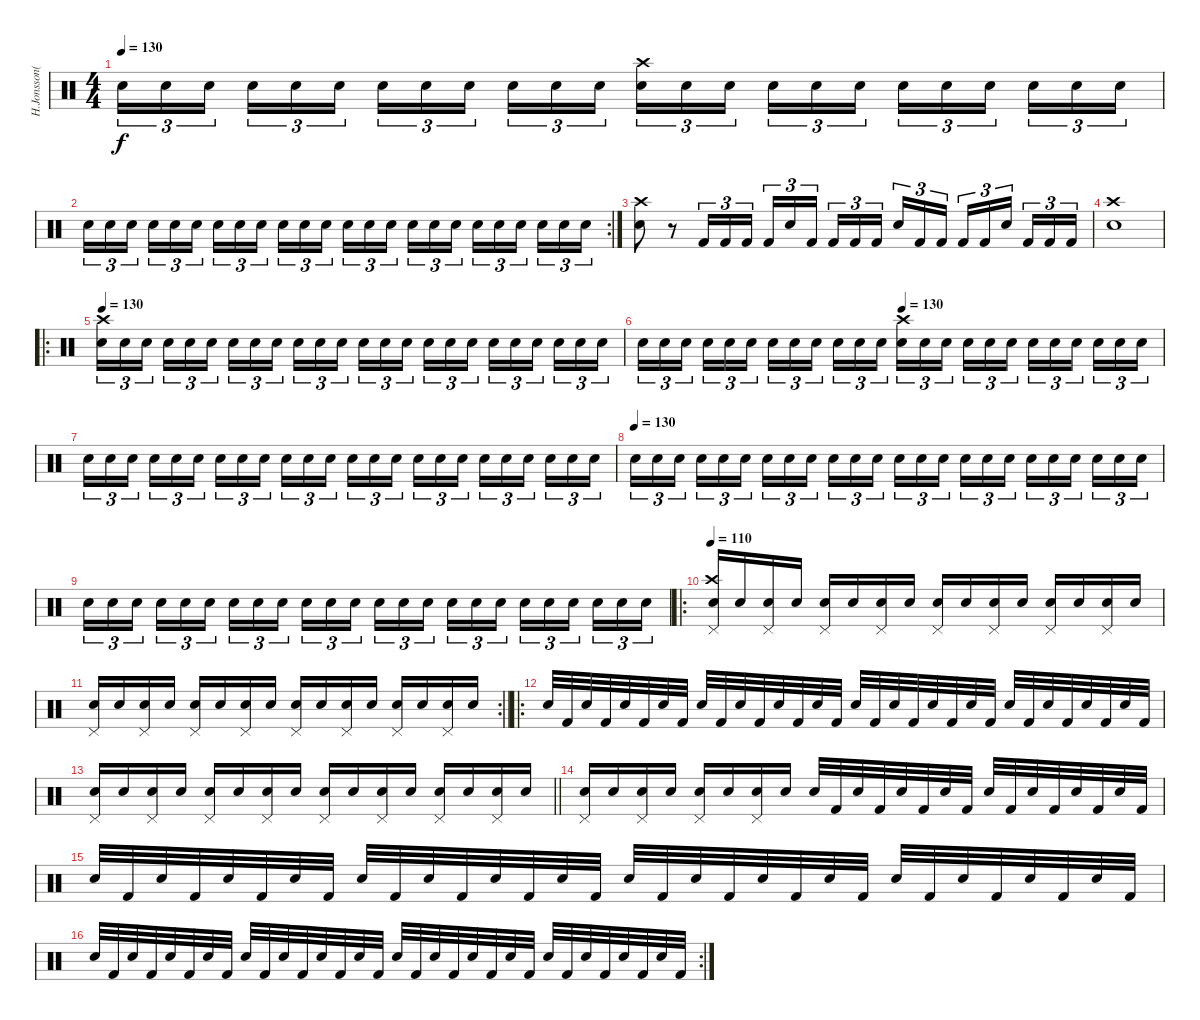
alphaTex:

\track ("H.Jonsson(Drums)" "H.Jonsson(") {instrument percussion}
\staff {score}
\articulation defaults
\ts (4 4)
\tempo 130
\clef neutral
\ks c "Electric Snare (hit)".16{tu (3 2) dy f} "Snare (hit) 2".16{tu (3 2)} "Electric Snare (hit)".16{tu (3 2) beam splitsecondary} "Snare (hit) 2".16{tu (3 2)} "Electric Snare (hit)".16{tu (3 2)} "Snare (hit) 2".16{tu (3 2)} "Electric Snare (hit)".16{tu (3 2)} "Snare (hit) 2".16{tu (3 2)} "Electric Snare (hit)".16{tu (3 2) beam splitsecondary} "Snare (hit) 2".16{tu (3 2)} "Electric Snare (hit)".16{tu (3 2)} "Snare (hit) 2".16{tu (3 2)}
("Crash high (hit)" "Electric Snare (hit)").16{tu (3 2)} "Snare (hit) 2".16{tu (3 2)} "Electric Snare (hit)".16{tu (3 2) beam splitsecondary} "Snare (hit) 2".16{tu (3 2)} "Electric Snare (hit)".16{tu (3 2)} "Snare (hit) 2".16{tu (3 2)} "Electric Snare (hit)".16{tu (3 2)} "Snare (hit) 2".16{tu (3 2)} "Electric Snare (hit)".16{tu (3 2) beam splitsecondary} "Snare (hit) 2".16{tu (3 2)} "Electric Snare (hit)".16{tu (3 2)} "Snare (hit) 2".16{tu (3 2)} |
\rc 2 "Electric Snare (hit)".16{tu (3 2)} "Snare (hit) 2".16{tu (3 2)} "Electric Snare (hit)".16{tu (3 2) beam splitsecondary} "Snare (hit) 2".16{tu (3 2)} "Electric Snare (hit)".16{tu (3 2)} "Snare (hit) 2".16{tu (3 2)} "Electric Snare (hit)".16{tu (3 2)} "Snare (hit) 2".16{tu (3 2)} "Electric Snare (hit)".16{tu (3 2) beam splitsecondary} "Snare (hit) 2".16{tu (3 2)} "Electric Snare (hit)".16{tu (3 2)} "Snare (hit) 2".16{tu (3 2)} "Electric Snare (hit)".16{tu (3 2)} "Snare (hit) 2".16{tu (3 2)} "Electric Snare (hit)".16{tu (3 2) beam splitsecondary} "Snare (hit) 2".16{tu (3 2)} "Electric Snare (hit)".16{tu (3 2)} "Snare (hit) 2".16{tu (3 2)} "Electric Snare (hit)".16{tu (3 2)} "Snare (hit) 2".16{tu (3 2)} "Electric Snare (hit)".16{tu (3 2) beam splitsecondary} "Snare (hit) 2".16{tu (3 2)} "Electric Snare (hit)".16{tu (3 2)} "Snare (hit) 2".16{tu (3 2)}
|
("Crash high (hit)" "Snare (hit) 2").8 r.8 "Kick (hit) 2".16{tu (3 2)} "Kick (hit) 2".16{tu (3 2)} "Kick (hit) 2".16{tu (3 2) beam splitsecondary} "Kick (hit) 2".16{tu (3 2)} "Snare (hit) 2".16{tu (3 2)} "Kick (hit) 2".16{tu (3 2)} "Kick (hit) 2".16{tu (3 2)} "Kick (hit) 2".16{tu (3 2)} "Kick (hit) 2".16{tu (3 2) beam splitsecondary} "Snare (hit) 2".16{tu (3 2)} "Kick (hit) 2".16{tu (3 2)} "Kick (hit) 2".16{tu (3 2)} "Kick (hit) 2".16{tu (3 2)} "Kick (hit) 2".16{tu (3 2)} "Snare (hit) 2".16{tu (3 2) beam splitsecondary} "Kick (hit) 2".16{tu (3 2)} "Kick (hit) 2".16{tu (3 2)} "Kick (hit) 2".16{tu (3 2)} |
("Snare (hit) 2" "Crash high (hit)").1 |
\ro
\tempo 130
("Crash high (hit)" "Electric Snare (hit)").16{tu (3 2)} "Snare (hit) 2".16{tu (3 2)} "Electric Snare (hit)".16{tu (3 2) beam splitsecondary} "Snare (hit) 2".16{tu (3 2)} "Electric Snare (hit)".16{tu (3 2)} "Snare (hit) 2".16{tu (3 2)} "Electric Snare (hit)".16{tu (3 2)} "Snare (hit) 2".16{tu (3 2)} "Electric Snare (hit)".16{tu (3 2) beam splitsecondary} "Snare (hit) 2".16{tu (3 2)} "Electric Snare (hit)".16{tu (3 2)} "Snare (hit) 2".16{tu (3 2)} "Electric Snare (hit)".16{tu (3 2)} "Snare (hit) 2".16{tu (3 2)} "Electric Snare (hit)".16{tu (3 2) beam splitsecondary} "Snare (hit) 2".16{tu (3 2)} "Electric Snare (hit)".16{tu (3 2)} "Snare (hit) 2".16{tu (3 2)} "Electric Snare (hit)".16{tu (3 2)} "Snare (hit) 2".16{tu (3 2)} "Electric Snare (hit)".16{tu (3 2) beam splitsecondary} "Snare (hit) 2".16{tu (3 2)} "Electric Snare (hit)".16{tu (3 2)} "Snare (hit) 2".16{tu (3 2)} |
\tempo (130 0.5)
"Electric Snare (hit)".16{tu (3 2)} "Snare (hit) 2".16{tu (3 2)} "Electric Snare (hit)".16{tu (3 2) beam splitsecondary} "Snare (hit) 2".16{tu (3 2)} "Electric Snare (hit)".16{tu (3 2)} "Snare (hit) 2".16{tu (3 2)} "Electric Snare (hit)".16{tu (3 2)} "Snare (hit) 2".16{tu (3 2)} "Electric Snare (hit)".16{tu (3 2) beam splitsecondary} "Snare (hit) 2".16{tu (3 2)} "Electric Snare (hit)".16{tu (3 2)} "Snare (hit) 2".16{tu (3 2)} ("Crash high (hit)" "Electric Snare (hit)").16{tu (3 2)} "Snare (hit) 2".16{tu (3 2)} "Electric Snare (hit)".16{tu (3 2) beam splitsecondary} "Snare (hit) 2".16{tu (3 2)} "Electric Snare (hit)".16{tu (3 2)} "Snare (hit) 2".16{tu (3 2)} "Electric Snare (hit)".16{tu (3 2)} "Snare (hit) 2".16{tu (3 2)} "Electric Snare (hit)".16{tu (3 2) beam splitsecondary} "Snare (hit) 2".16{tu (3 2)} "Electric Snare (hit)".16{tu (3 2)} "Snare (hit) 2".16{tu (3 2)} |
"Electric Snare (hit)".16{tu (3 2)} "Snare (hit) 2".16{tu (3 2)} "Electric Snare (hit)".16{tu (3 2) beam splitsecondary} "Snare (hit) 2".16{tu (3 2)} "Electric Snare (hit)".16{tu (3 2)} "Snare (hit) 2".16{tu (3 2)} "Electric Snare (hit)".16{tu (3 2)} "Snare (hit) 2".16{tu (3 2)} "Electric Snare (hit)".16{tu (3 2) beam splitsecondary} "Snare (hit) 2".16{tu (3 2)} "Electric Snare (hit)".16{tu (3 2)} "Snare (hit) 2".16{tu (3 2)} "Electric Snare (hit)".16{tu (3 2)} "Snare (hit) 2".16{tu (3 2)} "Electric Snare (hit)".16{tu (3 2) beam splitsecondary} "Snare (hit) 2".16{tu (3 2)} "Electric Snare (hit)".16{tu (3 2)} "Snare (hit) 2".16{tu (3 2)} "Electric Snare (hit)".16{tu (3 2)} "Snare (hit) 2".16{tu (3 2)} "Electric Snare (hit)".16{tu (3 2) beam splitsecondary} "Snare (hit) 2".16{tu (3 2)} "Electric Snare (hit)".16{tu (3 2)} "Snare (hit) 2".16{tu (3 2)} |
\tempo (130)
"Electric Snare (hit)".16{tu (3 2)} "Snare (hit) 2".16{tu (3 2)} "Electric Snare (hit)".16{tu (3 2) beam splitsecondary} "Snare (hit) 2".16{tu (3 2)} "Electric Snare (hit)".16{tu (3 2)} "Snare (hit) 2".16{tu (3 2)} "Electric Snare (hit)".16{tu (3 2)} "Snare (hit) 2".16{tu (3 2)} "Electric Snare (hit)".16{tu (3 2) beam splitsecondary} "Snare (hit) 2".16{tu (3 2)} "Electric Snare (hit)".16{tu (3 2)} "Snare (hit) 2".16{tu (3 2)} "Electric Snare (hit)".16{tu (3 2)} "Snare (hit) 2".16{tu (3 2)} "Electric Snare (hit)".16{tu (3 2) beam splitsecondary} "Snare (hit) 2".16{tu (3 2)} "Electric Snare (hit)".16{tu (3 2)} "Snare (hit) 2".16{tu (3 2)} "Electric Snare (hit)".16{tu (3 2)} "Snare (hit) 2".16{tu (3 2)} "Electric Snare (hit)".16{tu (3 2) beam splitsecondary} "Snare (hit) 2".16{tu (3 2)} "Electric Snare (hit)".16{tu (3 2)} "Snare (hit) 2".16{tu (3 2)} |
"Electric Snare (hit)".16{tu (3 2)} "Snare (hit) 2".16{tu (3 2)} "Electric Snare (hit)".16{tu (3 2) beam splitsecondary} "Snare (hit) 2".16{tu (3 2)} "Electric Snare (hit)".16{tu (3 2)} "Snare (hit) 2".16{tu (3 2)} "Electric Snare (hit)".16{tu (3 2)} "Snare (hit) 2".16{tu (3 2)} "Electric Snare (hit)".16{tu (3 2) beam splitsecondary} "Snare (hit) 2".16{tu (3 2)} "Electric Snare (hit)".16{tu (3 2)} "Snare (hit) 2".16{tu (3 2)} "Electric Snare (hit)".16{tu (3 2)} "Snare (hit) 2".16{tu (3 2)} "Electric Snare (hit)".16{tu (3 2) beam splitsecondary} "Snare (hit) 2".16{tu (3 2)} "Electric Snare (hit)".16{tu (3 2)} "Snare (hit) 2".16{tu (3 2)} "Electric Snare (hit)".16{tu (3 2)} "Snare (hit) 2".16{tu (3 2)} "Electric Snare (hit)".16{tu (3 2) beam splitsecondary} "Snare (hit) 2".16{tu (3 2)} "Electric Snare (hit)".16{tu (3 2)} "Snare (hit) 2".16{tu (3 2)} |
\ro
\tempo 120
\tempo 110
("Crash high (hit)" "Pedal Hi-Hat (hit)" "Snare (hit) 2").16 "Electric Snare (hit)".16 ("Pedal Hi-Hat (hit)" "Snare (hit) 2").16 "Electric Snare (hit)".16 ("Pedal Hi-Hat (hit)" "Snare (hit) 2").16 "Electric Snare (hit)".16 ("Pedal Hi-Hat (hit)" "Snare (hit) 2").16 "Electric Snare (hit)".16 ("Pedal Hi-Hat (hit)" "Snare (hit) 2").16 "Electric Snare (hit)".16 ("Pedal Hi-Hat (hit)" "Snare (hit) 2").16 "Electric Snare (hit)".16 ("Pedal Hi-Hat (hit)" "Snare (hit) 2").16 "Electric Snare (hit)".16 ("Pedal Hi-Hat (hit)" "Snare (hit) 2").16 "Electric Snare (hit)".16 |
\rc 2
\barLineRight lightlight
("Pedal Hi-Hat (hit)" "Snare (hit) 2").16 "Electric Snare (hit)".16 ("Pedal Hi-Hat (hit)" "Snare (hit) 2").16 "Electric Snare (hit)".16 ("Pedal Hi-Hat (hit)" "Snare (hit) 2").16 "Electric Snare (hit)".16 ("Pedal Hi-Hat (hit)" "Snare (hit) 2").16 "Electric Snare (hit)".16 ("Pedal Hi-Hat (hit)" "Snare (hit) 2").16 "Electric Snare (hit)".16 ("Pedal Hi-Hat (hit)" "Snare (hit) 2").16 "Electric Snare (hit)".16 ("Pedal Hi-Hat (hit)" "Snare (hit) 2").16 "Electric Snare (hit)".16 ("Pedal Hi-Hat (hit)" "Snare (hit) 2").16 "Electric Snare (hit)".16 |
\ro "Electric Snare (hit)".32 "Kick (hit) 2".32 "Electric Snare (hit)".32 "Kick (hit) 2".32 "Electric Snare (hit)".32 "Kick (hit) 2".32 "Electric Snare (hit)".32 "Kick (hit) 2".32 "Electric Snare (hit)".32 "Kick (hit) 2".32 "Electric Snare (hit)".32 "Kick (hit) 2".32 "Electric Snare (hit)".32 "Kick (hit) 2".32 "Electric Snare (hit)".32 "Kick (hit) 2".32 "Electric Snare (hit)".32 "Kick (hit) 2".32 "Electric Snare (hit)".32 "Kick (hit) 2".32 "Electric Snare (hit)".32 "Kick (hit) 2".32 "Electric Snare (hit)".32 "Kick (hit) 2".32 "Electric Snare (hit)".32 "Kick (hit) 2".32 "Electric Snare (hit)".32 "Kick (hit) 2".32 "Electric Snare (hit)".32 "Kick (hit) 2".32 "Electric Snare (hit)".32 "Kick (hit) 2".32
|
\barLineRight lightlight
("Pedal Hi-Hat (hit)" "Snare (hit) 2").16 "Electric Snare (hit)".16 ("Pedal Hi-Hat (hit)" "Snare (hit) 2").16 "Electric Snare (hit)".16 ("Pedal Hi-Hat (hit)" "Snare (hit) 2").16 "Electric Snare (hit)".16 ("Pedal Hi-Hat (hit)" "Snare (hit) 2").16 "Electric Snare (hit)".16 ("Pedal Hi-Hat (hit)" "Snare (hit) 2").16 "Electric Snare (hit)".16 ("Pedal Hi-Hat (hit)" "Snare (hit) 2").16 "Electric Snare (hit)".16 ("Pedal Hi-Hat (hit)" "Snare (hit) 2").16 "Electric Snare (hit)".16 ("Pedal Hi-Hat (hit)" "Snare (hit) 2").16 "Electric Snare (hit)".16 |
("Pedal Hi-Hat (hit)" "Snare (hit) 2").16 "Electric Snare (hit)".16 ("Pedal Hi-Hat (hit)" "Snare (hit) 2").16 "Electric Snare (hit)".16 ("Pedal Hi-Hat (hit)" "Snare (hit) 2").16 "Electric Snare (hit)".16 ("Pedal Hi-Hat (hit)" "Snare (hit) 2").16 "Electric Snare (hit)".16 "Electric Snare (hit)".32 "Kick (hit) 2".32 "Electric Snare (hit)".32 "Kick (hit) 2".32 "Electric Snare (hit)".32 "Kick (hit) 2".32 "Electric Snare (hit)".32 "Kick (hit) 2".32 "Electric Snare (hit)".32 "Kick (hit) 2".32 "Electric Snare (hit)".32 "Kick (hit) 2".32 "Electric Snare (hit)".32 "Kick (hit) 2".32 "Electric Snare (hit)".32 "Kick (hit) 2".32 |
"Electric Snare (hit)".32 "Kick (hit) 2".32 "Electric Snare (hit)".32 "Kick (hit) 2".32 "Electric Snare (hit)".32 "Kick (hit) 2".32 "Electric Snare (hit)".32 "Kick (hit) 2".32 "Electric Snare (hit)".32 "Kick (hit) 2".32 "Electric Snare (hit)".32 "Kick (hit) 2".32 "Electric Snare (hit)".32 "Kick (hit) 2".32 "Electric Snare (hit)".32 "Kick (hit) 2".32 "Electric Snare (hit)".32 "Kick (hit) 2".32 "Electric Snare (hit)".32 "Kick (hit) 2".32 "Electric Snare (hit)".32 "Kick (hit) 2".32 "Electric Snare (hit)".32 "Kick (hit) 2".32 "Electric Snare (hit)".32 "Kick (hit) 2".32 "Electric Snare (hit)".32 "Kick (hit) 2".32 "Electric Snare (hit)".32 "Kick (hit) 2".32 "Electric Snare (hit)".32 "Kick (hit) 2".32 |
\rc 2 "Electric Snare (hit)".32 "Kick (hit) 2".32 "Electric Snare (hit)".32 "Kick (hit) 2".32 "Electric Snare (hit)".32 "Kick (hit) 2".32 "Electric Snare (hit)".32 "Kick (hit) 2".32 "Electric Snare (hit)".32 "Kick (hit) 2".32 "Electric Snare (hit)".32 "Kick (hit) 2".32 "Electric Snare (hit)".32 "Kick (hit) 2".32 "Electric Snare (hit)".32 "Kick (hit) 2".32 "Electric Snare (hit)".32 "Kick (hit) 2".32 "Electric Snare (hit)".32 "Kick (hit) 2".32 "Electric Snare (hit)".32 "Kick (hit) 2".32 "Electric Snare (hit)".32 "Kick (hit) 2".32 "Electric Snare (hit)".32 "Kick (hit) 2".32 "Electric Snare (hit)".32 "Kick (hit) 2".32 "Electric Snare (hit)".32 "Kick (hit) 2".32 "Electric Snare (hit)".32 "Kick (hit) 2".32
